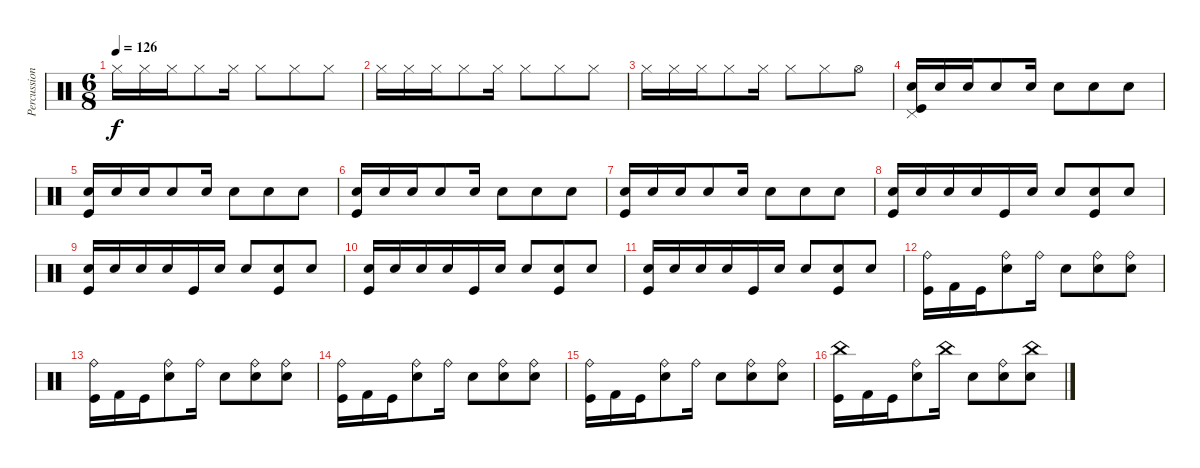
\track ("Percussion" "Percussion") {instrument percussion}
\staff {score}
\articulation defaults
\ts (6 8)
\tempo 126
\clef neutral
\ks c "Hi-Hat (closed)".16{dy f} "Hi-Hat (closed)".16 "Hi-Hat (closed)".16 "Hi-Hat (closed)".8 "Hi-Hat (closed)".16 "Hi-Hat (closed)".8 "Hi-Hat (closed)".8 "Hi-Hat (closed)".8
|
"Hi-Hat (closed)".16 "Hi-Hat (closed)".16 "Hi-Hat (closed)".16 "Hi-Hat (closed)".8 "Hi-Hat (closed)".16 "Hi-Hat (closed)".8 "Hi-Hat (closed)".8 "Hi-Hat (closed)".8 |
"Hi-Hat (closed)".16 "Hi-Hat (closed)".16 "Hi-Hat (closed)".16 "Hi-Hat (closed)".8 "Hi-Hat (closed)".16 "Hi-Hat (closed)".8 "Hi-Hat (closed)".8 "Hi-Hat (open)".8 |
("Pedal Hi-Hat (hit)" "Kick (hit)" "Snare (hit) 2").16 "Snare (hit) 2".16 "Snare (hit) 2".16 "Snare (hit) 2".8 "Snare (hit) 2".16 "Snare (hit) 2".8 "Snare (hit) 2".8 "Snare (hit) 2".8 |
("Kick (hit)" "Snare (hit) 2").16 "Snare (hit) 2".16 "Snare (hit) 2".16 "Snare (hit) 2".8 "Snare (hit) 2".16 "Snare (hit) 2".8 "Snare (hit) 2".8 "Snare (hit) 2".8 |
("Kick (hit)" "Snare (hit) 2").16 "Snare (hit) 2".16 "Snare (hit) 2".16 "Snare (hit) 2".8 "Snare (hit) 2".16 "Snare (hit) 2".8 "Snare (hit) 2".8 "Snare (hit) 2".8 |
("Kick (hit)" "Snare (hit) 2").16 "Snare (hit) 2".16 "Snare (hit) 2".16 "Snare (hit) 2".8 "Snare (hit) 2".16 "Snare (hit) 2".8 "Snare (hit) 2".8 "Snare (hit) 2".8 |
("Kick (hit)" "Snare (hit) 2").16 "Snare (hit) 2".16 "Snare (hit) 2".16 "Snare (hit) 2".16 "Kick (hit)".16 "Snare (hit) 2".16 "Snare (hit) 2".8 ("Snare (hit) 2" "Kick (hit)").8 "Snare (hit) 2".8 |
("Kick (hit)" "Snare (hit) 2").16 "Snare (hit) 2".16 "Snare (hit) 2".16 "Snare (hit) 2".16 "Kick (hit)".16 "Snare (hit) 2".16 "Snare (hit) 2".8 ("Snare (hit) 2" "Kick (hit)").8 "Snare (hit) 2".8 |
("Kick (hit)" "Snare (hit) 2").16 "Snare (hit) 2".16 "Snare (hit) 2".16 "Snare (hit) 2".16 "Kick (hit)".16 "Snare (hit) 2".16 "Snare (hit) 2".8 ("Snare (hit) 2" "Kick (hit)").8 "Snare (hit) 2".8 |
("Kick (hit)" "Snare (hit) 2").16 "Snare (hit) 2".16 "Snare (hit) 2".16 "Snare (hit) 2".16 "Kick (hit)".16 "Snare (hit) 2".16 "Snare (hit) 2".8 ("Snare (hit) 2" "Kick (hit)").8 "Snare (hit) 2".8 |
("Ride (bell)" "Kick (hit)").16 "Kick (hit) 2".16 "Kick (hit)".16 ("Ride (bell)" "Snare (hit) 2").8 "Ride (bell)".16 "Snare (hit) 2".8 ("Ride (bell)" "Snare (hit) 2").8 ("Ride (bell)" "Snare (hit) 2").8 |
("Ride (bell)" "Kick (hit)").16 "Kick (hit) 2".16 "Kick (hit)".16 ("Ride (bell)" "Snare (hit) 2").8 "Ride (bell)".16 "Snare (hit) 2".8 ("Ride (bell)" "Snare (hit) 2").8 ("Ride (bell)" "Snare (hit) 2").8 |
("Ride (bell)" "Kick (hit)").16 "Kick (hit) 2".16 "Kick (hit)".16 ("Ride (bell)" "Snare (hit) 2").8 "Ride (bell)".16 "Snare (hit) 2".8 ("Ride (bell)" "Snare (hit) 2").8 ("Ride (bell)" "Snare (hit) 2").8 |
("Ride (bell)" "Kick (hit)").16 "Kick (hit) 2".16 "Kick (hit)".16 ("Ride (bell)" "Snare (hit) 2").8 "Ride (bell)".16 "Snare (hit) 2".8 ("Ride (bell)" "Snare (hit) 2").8 ("Ride (bell)" "Snare (hit) 2").8 |
("China (hit)" "Kick (hit)").16 "Kick (hit) 2".16 "Kick (hit)".16 ("Ride (bell)" "Snare (hit) 2").8 "China (hit)".16 "Snare (hit) 2".8 ("Ride (bell)" "Snare (hit) 2").8 ("China (hit)" "Snare (hit) 2").8
